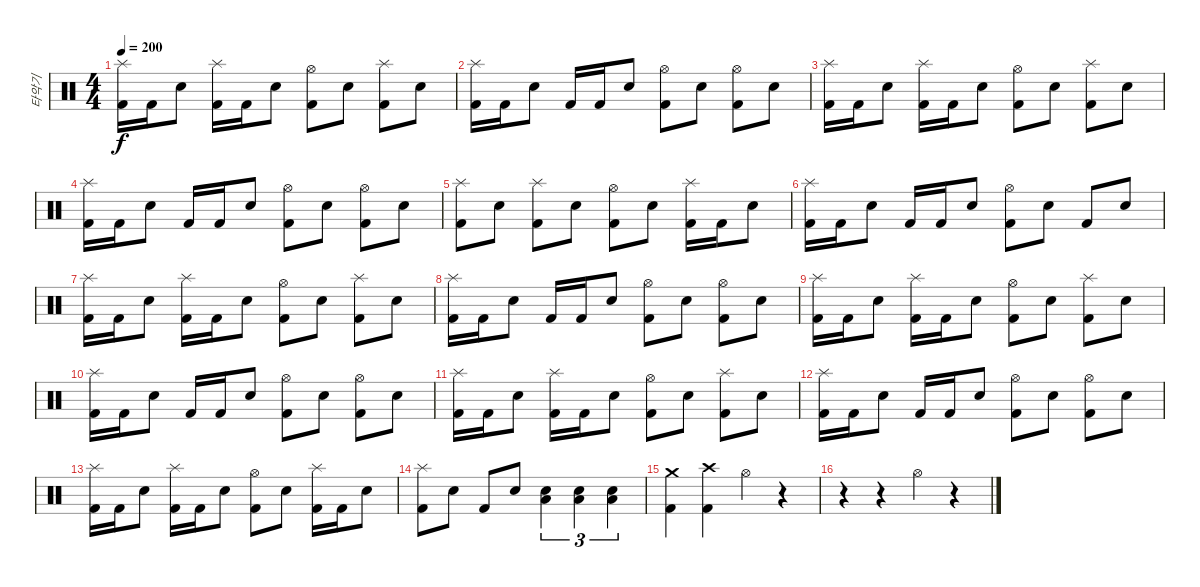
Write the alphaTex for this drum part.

\track ("타악기" "타악기") {instrument percussion}
\staff {score}
\articulation defaults
\ts (4 4)
\tempo 200
\clef neutral
\ks c
("Splash (hit)" "Kick (hit) 2").16{dy f} "Kick (hit) 2".16 "Snare (hit) 2".8 ("Splash (hit)" "Kick (hit) 2").16 "Kick (hit) 2".16 "Snare (hit) 2".8 ("Hi-Hat (open)" "Kick (hit) 2").8 "Snare (hit) 2".8 ("Splash (hit)" "Kick (hit) 2").8 "Snare (hit) 2".8 |
("Splash (hit)" "Kick (hit) 2").16 "Kick (hit) 2".16 "Snare (hit) 2".8 "Kick (hit) 2".16 "Kick (hit) 2".16 "Snare (hit) 2".8 ("Hi-Hat (open)" "Kick (hit) 2").8 "Snare (hit) 2".8 ("Hi-Hat (open)" "Kick (hit) 2").8 "Snare (hit) 2".8 |
("Splash (hit)" "Kick (hit) 2").16 "Kick (hit) 2".16 "Snare (hit) 2".8 ("Splash (hit)" "Kick (hit) 2").16 "Kick (hit) 2".16 "Snare (hit) 2".8 ("Hi-Hat (open)" "Kick (hit) 2").8 "Snare (hit) 2".8 ("Splash (hit)" "Kick (hit) 2").8 "Snare (hit) 2".8 |
("Splash (hit)" "Kick (hit) 2").16 "Kick (hit) 2".16 "Snare (hit) 2".8 "Kick (hit) 2".16 "Kick (hit) 2".16 "Snare (hit) 2".8 ("Hi-Hat (open)" "Kick (hit) 2").8 "Snare (hit) 2".8 ("Hi-Hat (open)" "Kick (hit) 2").8 "Snare (hit) 2".8 |
("Splash (hit)" "Kick (hit) 2").8 "Snare (hit) 2".8 ("Splash (hit)" "Kick (hit) 2").8 "Snare (hit) 2".8 ("Hi-Hat (open)" "Kick (hit) 2").8 "Snare (hit) 2".8 ("Splash (hit)" "Kick (hit) 2").16 "Kick (hit) 2".16 "Snare (hit) 2".8 |
("Splash (hit)" "Kick (hit) 2").16 "Kick (hit) 2".16 "Snare (hit) 2".8 "Kick (hit) 2".16 "Kick (hit) 2".16 "Snare (hit) 2".8 ("Hi-Hat (open)" "Kick (hit) 2").8 "Snare (hit) 2".8 "Kick (hit) 2".8 "Snare (hit) 2".8 |
("Splash (hit)" "Kick (hit) 2").16 "Kick (hit) 2".16 "Snare (hit) 2".8 ("Splash (hit)" "Kick (hit) 2").16 "Kick (hit) 2".16 "Snare (hit) 2".8 ("Hi-Hat (open)" "Kick (hit) 2").8 "Snare (hit) 2".8 ("Splash (hit)" "Kick (hit) 2").8 "Snare (hit) 2".8 |
("Splash (hit)" "Kick (hit) 2").16 "Kick (hit) 2".16 "Snare (hit) 2".8 "Kick (hit) 2".16 "Kick (hit) 2".16 "Snare (hit) 2".8 ("Hi-Hat (open)" "Kick (hit) 2").8 "Snare (hit) 2".8 ("Hi-Hat (open)" "Kick (hit) 2").8 "Snare (hit) 2".8 |
("Splash (hit)" "Kick (hit) 2").16 "Kick (hit) 2".16 "Snare (hit) 2".8 ("Splash (hit)" "Kick (hit) 2").16 "Kick (hit) 2".16 "Snare (hit) 2".8 ("Hi-Hat (open)" "Kick (hit) 2").8 "Snare (hit) 2".8 ("Splash (hit)" "Kick (hit) 2").8 "Snare (hit) 2".8 |
("Splash (hit)" "Kick (hit) 2").16 "Kick (hit) 2".16 "Snare (hit) 2".8 "Kick (hit) 2".16 "Kick (hit) 2".16 "Snare (hit) 2".8 ("Hi-Hat (open)" "Kick (hit) 2").8 "Snare (hit) 2".8 ("Hi-Hat (open)" "Kick (hit) 2").8 "Snare (hit) 2".8 |
("Splash (hit)" "Kick (hit) 2").16 "Kick (hit) 2".16 "Snare (hit) 2".8 ("Splash (hit)" "Kick (hit) 2").16 "Kick (hit) 2".16 "Snare (hit) 2".8 ("Hi-Hat (open)" "Kick (hit) 2").8 "Snare (hit) 2".8 ("Splash (hit)" "Kick (hit) 2").8 "Snare (hit) 2".8 |
("Splash (hit)" "Kick (hit) 2").16 "Kick (hit) 2".16 "Snare (hit) 2".8 "Kick (hit) 2".16 "Kick (hit) 2".16 "Snare (hit) 2".8 ("Hi-Hat (open)" "Kick (hit) 2").8 "Snare (hit) 2".8 ("Hi-Hat (open)" "Kick (hit) 2").8 "Snare (hit) 2".8 |
("Splash (hit)" "Kick (hit) 2").16 "Kick (hit) 2".16 "Snare (hit) 2".8 ("Splash (hit)" "Kick (hit) 2").16 "Kick (hit) 2".16 "Snare (hit) 2".8 ("Hi-Hat (open)" "Kick (hit) 2").8 "Snare (hit) 2".8 ("Splash (hit)" "Kick (hit) 2").16 "Kick (hit) 2".16 "Snare (hit) 2".8 |
("Splash (hit)" "Kick (hit) 2").8 "Snare (hit) 2".8 "Kick (hit) 2".8 "Snare (hit) 2".8 ("Low Tom (hit)" "Snare (hit) 2").4{tu (3 2)} ("Low Tom (hit)" "Snare (hit) 2").4{tu (3 2)} ("Low Tom (hit)" "Snare (hit) 2").4{tu (3 2)} |
("Crash medium (hit)" "Kick (hit) 2").4 ("Crash high (hit)" "Kick (hit) 2").4 "Hi-Hat (open)".4 r.4 |
r.4 r.4 "Hi-Hat (open)".4 r.4
